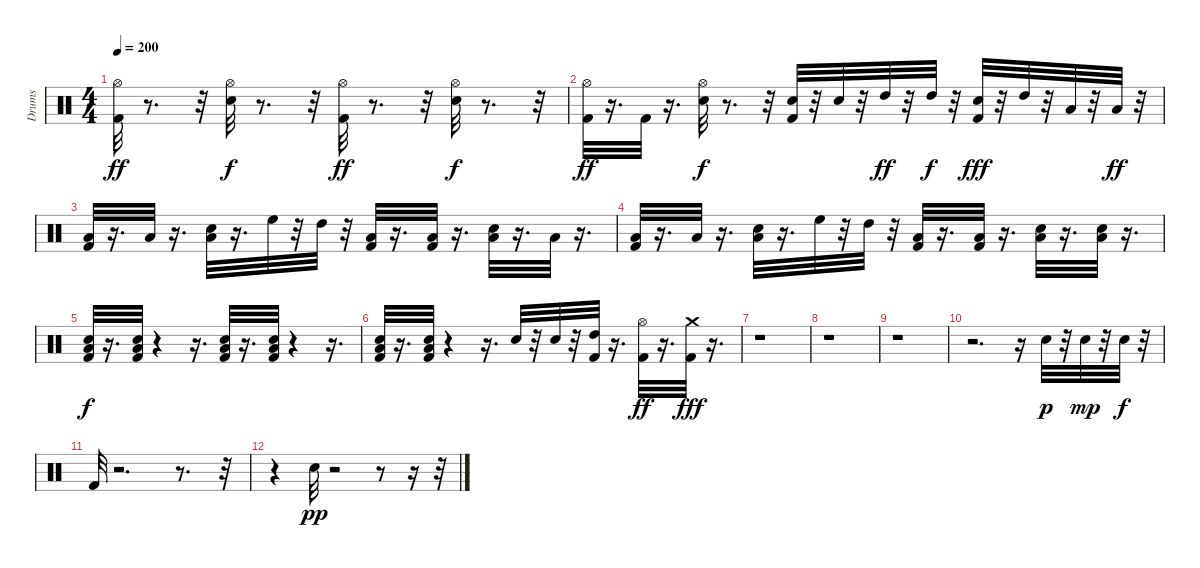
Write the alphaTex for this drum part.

\track ("Drums" "Drums") {instrument percussion}
\staff {score}
\articulation defaults
\ts (4 4)
\tempo 200
\clef neutral
\ks c
("Hi-Hat (open)" "Kick (hit) 2").32{dy ff} r.8{d} r.32 ("Hi-Hat (open)" "Snare (hit) 2").32{dy f} r.8{d} r.32 ("Hi-Hat (open)" "Kick (hit) 2").32{dy ff} r.8{d} r.32 ("Hi-Hat (open)" "Snare (hit) 2").32{dy f} r.8{d} r.32 |
("Kick (hit) 2" "Hi-Hat (open)").32{dy ff} r.16{d} "Kick (hit) 2".32 r.16{d} ("Hi-Hat (open)" "Snare (hit) 2").32{dy f} r.8{d} r.32 ("Snare (hit) 2" "Kick (hit) 2").32 r.32 "Snare (hit) 2".32 r.32 "High Tom (hit)".32{dy ff} r.32 "High Tom (hit)".32{dy f} r.32 ("Snare (hit) 2" "Kick (hit) 2").32{dy fff} r.32 "High Tom (hit)".32 r.32 "Low Floor Tom (hit)".32 r.32 "Low Floor Tom (hit)".32{dy ff} r.32 |
("Low Floor Tom (hit)" "Kick (hit) 2").32 r.16{d} "Low Floor Tom (hit)".32 r.16{d} ("Low Floor Tom (hit)" "Snare (hit) 2").32 r.16{d} "High Floor Tom (hit)".32 r.32 "High Tom (hit)".32 r.32 ("Low Floor Tom (hit)" "Kick (hit) 2").32 r.16{d} ("Low Floor Tom (hit)" "Kick (hit) 2").32 r.16{d} ("Low Floor Tom (hit)" "Snare (hit) 2").32 r.16{d} "Low Floor Tom (hit)".32 r.16{d} |
("Low Floor Tom (hit)" "Kick (hit) 2").32 r.16{d} "Low Floor Tom (hit)".32 r.16{d} ("Low Floor Tom (hit)" "Snare (hit) 2").32 r.16{d} "High Floor Tom (hit)".32 r.32 "High Tom (hit)".32 r.32 ("Low Floor Tom (hit)" "Kick (hit) 2").32 r.16{d} ("Low Floor Tom (hit)" "Kick (hit) 2").32 r.16{d} ("Snare (hit) 2" "Low Floor Tom (hit)").32 r.16{d} ("Snare (hit) 2" "Low Floor Tom (hit)").32 r.16{d} |
("Kick (hit) 2" "Low Floor Tom (hit)" "Snare (hit) 2").32{dy f} r.16{d} ("Kick (hit) 2" "Low Floor Tom (hit)" "Snare (hit) 2").32 r.4 r.16{d} ("Low Floor Tom (hit)" "Snare (hit) 2" "Kick (hit) 2").32 r.16{d} ("Low Floor Tom (hit)" "Snare (hit) 2" "Kick (hit) 2").32 r.4 r.16{d} |
("Snare (hit) 2" "Kick (hit) 2" "Low Floor Tom (hit)").32 r.16{d} ("Snare (hit) 2" "Kick (hit) 2" "Low Floor Tom (hit)").32 r.4 r.16{d} "Snare (hit) 2".32 r.32 "Snare (hit) 2".32 r.32 ("High Tom (hit)" "Kick (hit) 2").32 r.16{d} ("Hi-Hat (open)" "Kick (hit) 2").32{dy ff} r.16{d} ("Crash medium (hit)" "Kick (hit) 2").32{dy fff} r.16{d} |
r.1 |
r.1 |
r.1 |
r.2{d} r.16 "Snare (hit) 2".32{dy p} r.32 "Snare (hit) 2".32{dy mp} r.32 "Snare (hit) 2".32{dy f} r.32 |
"Kick (hit) 2".32 r.2{d} r.8{d} r.32 |
r.4 "Metronome (bell)".32{dy pp} r.2 r.8 r.16 r.32
